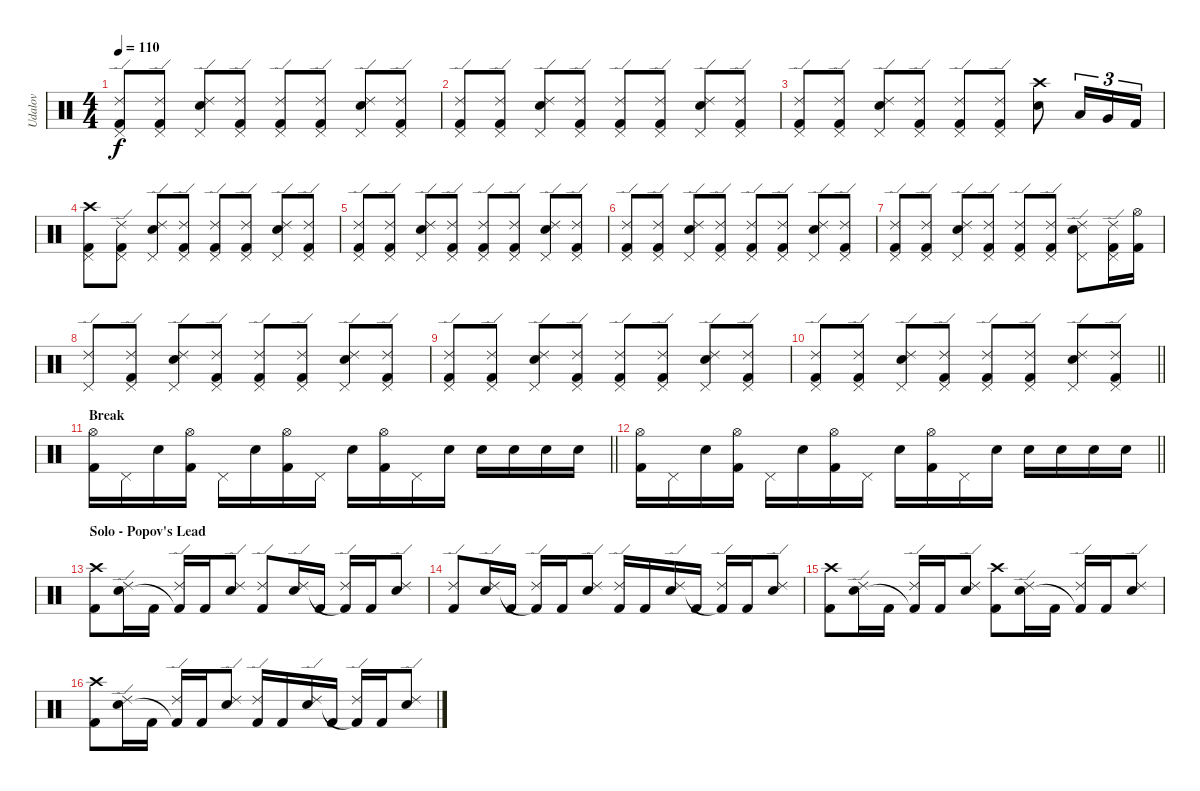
\track ("Udalov" "Udalov") {instrument percussion}
\staff {score}
\articulation defaults
\ts (4 4)
\tempo 110
\clef neutral
\ks c
("Ride (edge) 2" "Kick (hit) 2" "Pedal Hi-Hat (hit)").8{dy f} ("Ride (edge) 2" "Kick (hit) 2" "Pedal Hi-Hat (hit)").8 ("Ride (edge) 2" "Snare (hit) 2" "Pedal Hi-Hat (hit)").8 ("Ride (edge) 2" "Kick (hit) 2" "Pedal Hi-Hat (hit)").8 ("Ride (edge) 2" "Kick (hit) 2" "Pedal Hi-Hat (hit)").8 ("Ride (edge) 2" "Kick (hit) 2" "Pedal Hi-Hat (hit)").8 ("Ride (edge) 2" "Snare (hit) 2" "Pedal Hi-Hat (hit)").8 ("Ride (edge) 2" "Kick (hit) 2" "Pedal Hi-Hat (hit)").8 |
("Ride (edge) 2" "Kick (hit) 2" "Pedal Hi-Hat (hit)").8 ("Ride (edge) 2" "Kick (hit) 2" "Pedal Hi-Hat (hit)").8 ("Ride (edge) 2" "Snare (hit) 2" "Pedal Hi-Hat (hit)").8 ("Ride (edge) 2" "Kick (hit) 2" "Pedal Hi-Hat (hit)").8 ("Ride (edge) 2" "Kick (hit) 2" "Pedal Hi-Hat (hit)").8 ("Ride (edge) 2" "Kick (hit) 2" "Pedal Hi-Hat (hit)").8 ("Ride (edge) 2" "Snare (hit) 2" "Pedal Hi-Hat (hit)").8 ("Ride (edge) 2" "Kick (hit) 2" "Pedal Hi-Hat (hit)").8 |
("Ride (edge) 2" "Kick (hit) 2" "Pedal Hi-Hat (hit)").8 ("Ride (edge) 2" "Kick (hit) 2" "Pedal Hi-Hat (hit)").8 ("Ride (edge) 2" "Snare (hit) 2" "Pedal Hi-Hat (hit)").8 ("Ride (edge) 2" "Kick (hit) 2" "Pedal Hi-Hat (hit)").8 ("Ride (edge) 2" "Kick (hit) 2" "Pedal Hi-Hat (hit)").8 ("Ride (edge) 2" "Kick (hit) 2" "Pedal Hi-Hat (hit)").8 ("Crash high (hit)" "Snare (hit) 2").8 "Low Tom (hit)".16{tu (3 2)} "Very Low Tom (hit)".16{tu (3 2)} "Kick (hit) 2".16{tu (3 2)} |
("Crash high (hit)" "Kick (hit) 2" "Pedal Hi-Hat (hit)").8 ("Ride (edge) 2" "Kick (hit) 2" "Pedal Hi-Hat (hit)").8 ("Ride (edge) 2" "Snare (hit) 2" "Pedal Hi-Hat (hit)").8 ("Ride (edge) 2" "Kick (hit) 2" "Pedal Hi-Hat (hit)").8 ("Ride (edge) 2" "Kick (hit) 2" "Pedal Hi-Hat (hit)").8 ("Ride (edge) 2" "Kick (hit) 2" "Pedal Hi-Hat (hit)").8 ("Ride (edge) 2" "Snare (hit) 2" "Pedal Hi-Hat (hit)").8 ("Ride (edge) 2" "Kick (hit) 2" "Pedal Hi-Hat (hit)").8 |
("Ride (edge) 2" "Kick (hit) 2" "Pedal Hi-Hat (hit)").8 ("Ride (edge) 2" "Kick (hit) 2" "Pedal Hi-Hat (hit)").8 ("Ride (edge) 2" "Snare (hit) 2" "Pedal Hi-Hat (hit)").8 ("Ride (edge) 2" "Kick (hit) 2" "Pedal Hi-Hat (hit)").8 ("Ride (edge) 2" "Kick (hit) 2" "Pedal Hi-Hat (hit)").8 ("Ride (edge) 2" "Kick (hit) 2" "Pedal Hi-Hat (hit)").8 ("Ride (edge) 2" "Snare (hit) 2" "Pedal Hi-Hat (hit)").8 ("Ride (edge) 2" "Kick (hit) 2" "Pedal Hi-Hat (hit)").8 |
("Ride (edge) 2" "Kick (hit) 2" "Pedal Hi-Hat (hit)").8 ("Ride (edge) 2" "Kick (hit) 2" "Pedal Hi-Hat (hit)").8 ("Ride (edge) 2" "Snare (hit) 2" "Pedal Hi-Hat (hit)").8 ("Ride (edge) 2" "Kick (hit) 2" "Pedal Hi-Hat (hit)").8 ("Ride (edge) 2" "Kick (hit) 2" "Pedal Hi-Hat (hit)").8 ("Ride (edge) 2" "Kick (hit) 2" "Pedal Hi-Hat (hit)").8 ("Ride (edge) 2" "Snare (hit) 2" "Pedal Hi-Hat (hit)").8 ("Ride (edge) 2" "Kick (hit) 2" "Pedal Hi-Hat (hit)").8 |
("Ride (edge) 2" "Kick (hit) 2" "Pedal Hi-Hat (hit)").8 ("Ride (edge) 2" "Kick (hit) 2" "Pedal Hi-Hat (hit)").8 ("Ride (edge) 2" "Snare (hit) 2" "Pedal Hi-Hat (hit)").8 ("Ride (edge) 2" "Kick (hit) 2" "Pedal Hi-Hat (hit)").8 ("Ride (edge) 2" "Kick (hit) 2" "Pedal Hi-Hat (hit)").8 ("Ride (edge) 2" "Kick (hit) 2" "Pedal Hi-Hat (hit)").8 ("Ride (edge) 2" "Snare (hit) 2" "Pedal Hi-Hat (hit)").8 ("Ride (edge) 2" "Kick (hit) 2" "Pedal Hi-Hat (hit)").16 ("Hi-Hat (open)" "Kick (hit) 2").16 |
("Ride (edge) 2" "Pedal Hi-Hat (hit)").8 ("Ride (edge) 2" "Kick (hit) 2" "Pedal Hi-Hat (hit)").8 ("Ride (edge) 2" "Snare (hit) 2" "Pedal Hi-Hat (hit)").8 ("Ride (edge) 2" "Kick (hit) 2" "Pedal Hi-Hat (hit)").8 ("Ride (edge) 2" "Kick (hit) 2" "Pedal Hi-Hat (hit)").8 ("Ride (edge) 2" "Kick (hit) 2" "Pedal Hi-Hat (hit)").8 ("Ride (edge) 2" "Snare (hit) 2" "Pedal Hi-Hat (hit)").8 ("Ride (edge) 2" "Kick (hit) 2" "Pedal Hi-Hat (hit)").8 |
("Ride (edge) 2" "Kick (hit) 2" "Pedal Hi-Hat (hit)").8 ("Ride (edge) 2" "Kick (hit) 2" "Pedal Hi-Hat (hit)").8 ("Ride (edge) 2" "Snare (hit) 2" "Pedal Hi-Hat (hit)").8 ("Ride (edge) 2" "Kick (hit) 2" "Pedal Hi-Hat (hit)").8 ("Ride (edge) 2" "Kick (hit) 2" "Pedal Hi-Hat (hit)").8 ("Ride (edge) 2" "Kick (hit) 2" "Pedal Hi-Hat (hit)").8 ("Ride (edge) 2" "Snare (hit) 2" "Pedal Hi-Hat (hit)").8 ("Ride (edge) 2" "Kick (hit) 2" "Pedal Hi-Hat (hit)").8 |
\barLineRight lightlight
("Ride (edge) 2" "Kick (hit) 2" "Pedal Hi-Hat (hit)").8 ("Ride (edge) 2" "Kick (hit) 2" "Pedal Hi-Hat (hit)").8 ("Ride (edge) 2" "Snare (hit) 2" "Pedal Hi-Hat (hit)").8 ("Ride (edge) 2" "Kick (hit) 2" "Pedal Hi-Hat (hit)").8 ("Ride (edge) 2" "Kick (hit) 2" "Pedal Hi-Hat (hit)").8 ("Ride (edge) 2" "Kick (hit) 2" "Pedal Hi-Hat (hit)").8 ("Ride (edge) 2" "Snare (hit) 2" "Pedal Hi-Hat (hit)").8 ("Ride (edge) 2" "Kick (hit) 2" "Pedal Hi-Hat (hit)").8 |
\section ("" "Break")
\barLineRight lightlight
("Hi-Hat (open)" "Kick (hit) 2").16 "Pedal Hi-Hat (hit)".16 "Snare (hit) 2".16 ("Hi-Hat (open)" "Kick (hit) 2").16 "Pedal Hi-Hat (hit)".16 "Snare (hit) 2".16 ("Hi-Hat (open)" "Kick (hit) 2").16 "Pedal Hi-Hat (hit)".16 "Snare (hit) 2".16 ("Hi-Hat (open)" "Kick (hit) 2").16 "Pedal Hi-Hat (hit)".16 "Snare (hit) 2".16 "Snare (hit) 2".16 "Snare (hit) 2".16 "Snare (hit) 2".16 "Snare (hit) 2".16 |
\barLineRight lightlight
("Hi-Hat (open)" "Kick (hit) 2").16 "Pedal Hi-Hat (hit)".16 "Snare (hit) 2".16 ("Hi-Hat (open)" "Kick (hit) 2").16 "Pedal Hi-Hat (hit)".16 "Snare (hit) 2".16 ("Hi-Hat (open)" "Kick (hit) 2").16 "Pedal Hi-Hat (hit)".16 "Snare (hit) 2".16 ("Hi-Hat (open)" "Kick (hit) 2").16 "Pedal Hi-Hat (hit)".16 "Snare (hit) 2".16 "Snare (hit) 2".16 "Snare (hit) 2".16 "Snare (hit) 2".16 "Snare (hit) 2".16 |
\section ("" "Solo - Popov's Lead")
("Crash high (hit)" "Kick (hit) 2").8 ("Ride (edge) 2" "Snare (hit) 2").16 "Kick (hit) 2".16 ("Ride (edge) 2" "Kick (hit) 2"{t}).16 "Kick (hit) 2".16 ("Ride (edge) 2" "Snare (hit) 2").8 ("Ride (edge) 2" "Kick (hit) 2").8 ("Ride (edge) 2" "Snare (hit) 2").16 "Kick (hit) 2".16 ("Ride (edge) 2" "Kick (hit) 2"{t}).16 "Kick (hit) 2".16 ("Ride (edge) 2" "Snare (hit) 2").8 |
("Ride (edge) 2" "Kick (hit) 2").8 ("Ride (edge) 2" "Snare (hit) 2").16 "Kick (hit) 2".16 ("Ride (edge) 2" "Kick (hit) 2"{t}).16 "Kick (hit) 2".16 ("Ride (edge) 2" "Snare (hit) 2").8 ("Ride (edge) 2" "Kick (hit) 2").16 "Kick (hit) 2".16 ("Ride (edge) 2" "Snare (hit) 2").16 "Kick (hit) 2".16 ("Ride (edge) 2" "Kick (hit) 2"{t}).16 "Kick (hit) 2".16 ("Ride (edge) 2" "Snare (hit) 2").8 |
("Crash high (hit)" "Kick (hit) 2").8 ("Ride (edge) 2" "Snare (hit) 2").16 "Kick (hit) 2".16 ("Ride (edge) 2" "Kick (hit) 2"{t}).16 "Kick (hit) 2".16 ("Ride (edge) 2" "Snare (hit) 2").8 ("Crash high (hit)" "Kick (hit) 2").8 ("Ride (edge) 2" "Snare (hit) 2").16 "Kick (hit) 2".16 ("Ride (edge) 2" "Kick (hit) 2"{t}).16 "Kick (hit) 2".16 ("Ride (edge) 2" "Snare (hit) 2").8 |
("Crash high (hit)" "Kick (hit) 2").8 ("Ride (edge) 2" "Snare (hit) 2").16 "Kick (hit) 2".16 ("Ride (edge) 2" "Kick (hit) 2"{t}).16 "Kick (hit) 2".16 ("Ride (edge) 2" "Snare (hit) 2").8 ("Ride (edge) 2" "Kick (hit) 2").16 "Kick (hit) 2".16 ("Ride (edge) 2" "Snare (hit) 2").16 "Kick (hit) 2".16 ("Ride (edge) 2" "Kick (hit) 2"{t}).16 "Kick (hit) 2".16 ("Ride (edge) 2" "Snare (hit) 2").8
